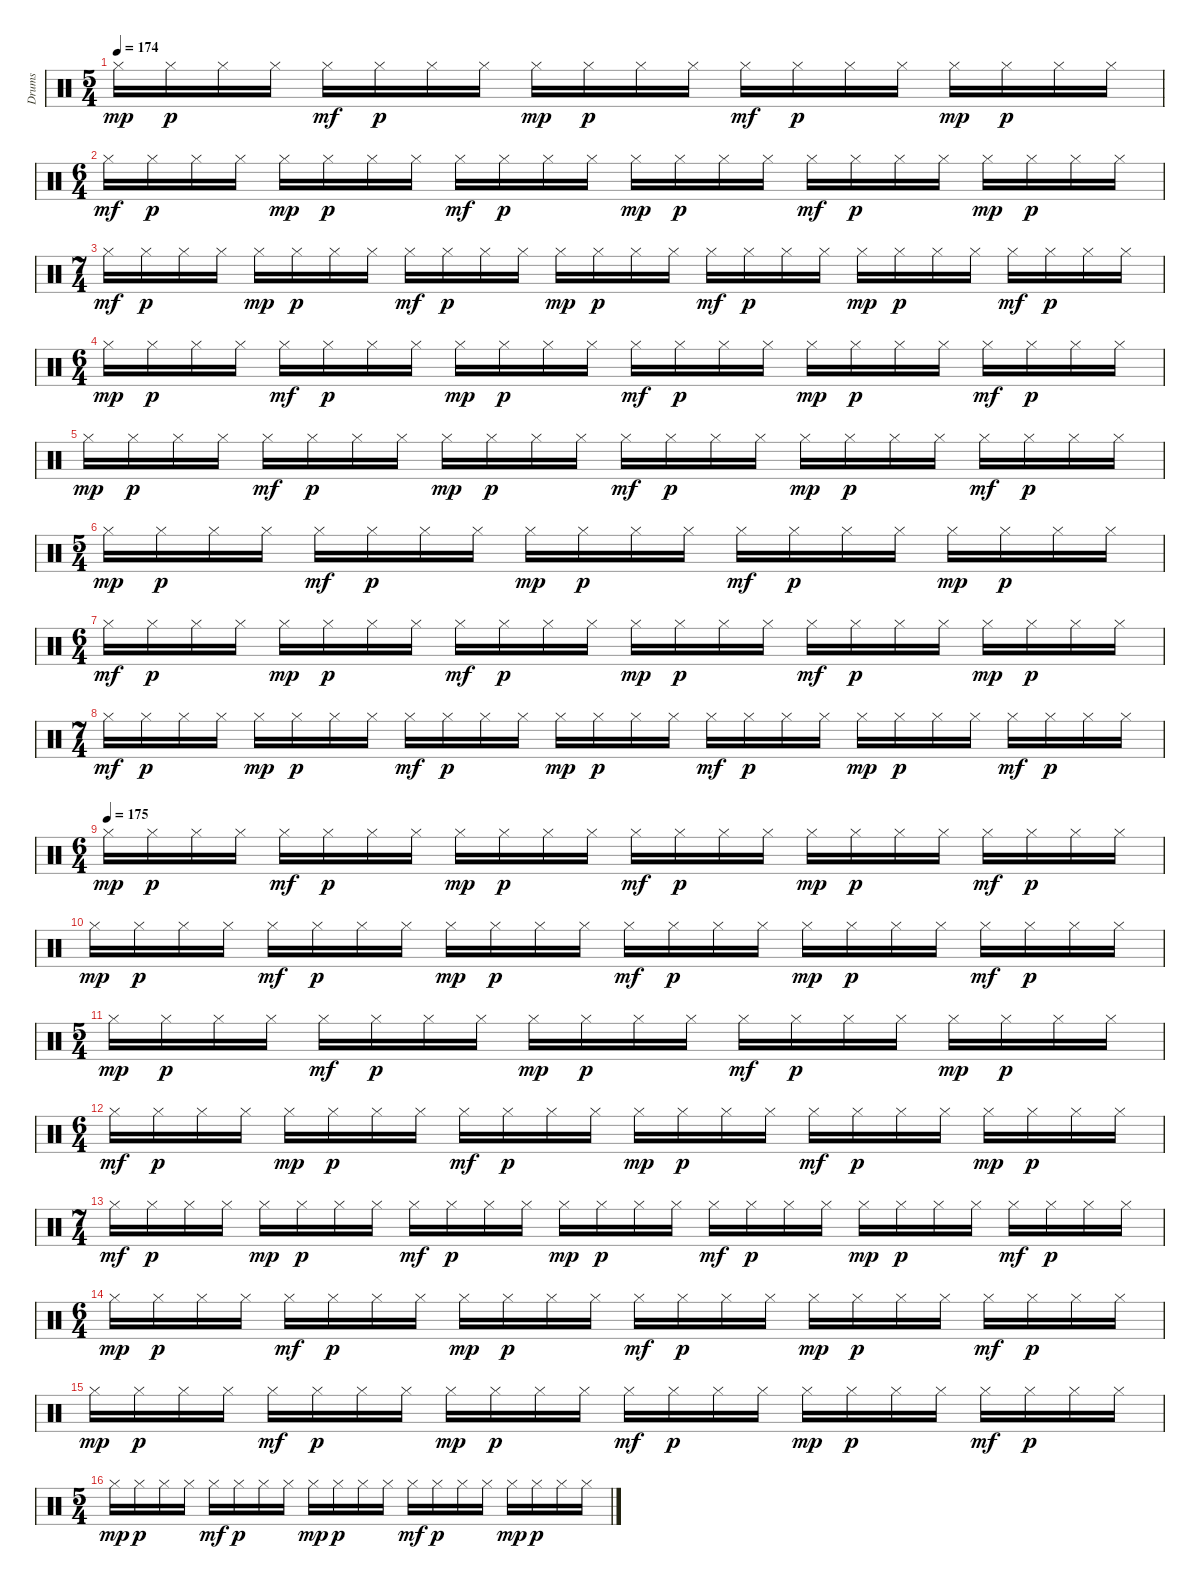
\track ("Drums" "Drums") {instrument percussion}
\staff {score}
\articulation defaults
\ts (5 4)
\tempo 174
\clef neutral
\ks c "Hi-Hat (closed)".16{dy mp} "Hi-Hat (closed)".16{dy p} "Hi-Hat (closed)".16 "Hi-Hat (closed)".16 "Hi-Hat (closed)".16{dy mf} "Hi-Hat (closed)".16{dy p} "Hi-Hat (closed)".16 "Hi-Hat (closed)".16 "Hi-Hat (closed)".16{dy mp} "Hi-Hat (closed)".16{dy p} "Hi-Hat (closed)".16 "Hi-Hat (closed)".16 "Hi-Hat (closed)".16{dy mf} "Hi-Hat (closed)".16{dy p} "Hi-Hat (closed)".16 "Hi-Hat (closed)".16 "Hi-Hat (closed)".16{dy mp} "Hi-Hat (closed)".16{dy p} "Hi-Hat (closed)".16 "Hi-Hat (closed)".16
|
\ts (6 4)
"Hi-Hat (closed)".16{dy mf} "Hi-Hat (closed)".16{dy p} "Hi-Hat (closed)".16 "Hi-Hat (closed)".16 "Hi-Hat (closed)".16{dy mp} "Hi-Hat (closed)".16{dy p} "Hi-Hat (closed)".16 "Hi-Hat (closed)".16 "Hi-Hat (closed)".16{dy mf} "Hi-Hat (closed)".16{dy p} "Hi-Hat (closed)".16 "Hi-Hat (closed)".16 "Hi-Hat (closed)".16{dy mp} "Hi-Hat (closed)".16{dy p} "Hi-Hat (closed)".16 "Hi-Hat (closed)".16 "Hi-Hat (closed)".16{dy mf} "Hi-Hat (closed)".16{dy p} "Hi-Hat (closed)".16 "Hi-Hat (closed)".16 "Hi-Hat (closed)".16{dy mp} "Hi-Hat (closed)".16{dy p} "Hi-Hat (closed)".16 "Hi-Hat (closed)".16 |
\ts (7 4)
"Hi-Hat (closed)".16{dy mf} "Hi-Hat (closed)".16{dy p} "Hi-Hat (closed)".16 "Hi-Hat (closed)".16 "Hi-Hat (closed)".16{dy mp} "Hi-Hat (closed)".16{dy p} "Hi-Hat (closed)".16 "Hi-Hat (closed)".16 "Hi-Hat (closed)".16{dy mf} "Hi-Hat (closed)".16{dy p} "Hi-Hat (closed)".16 "Hi-Hat (closed)".16 "Hi-Hat (closed)".16{dy mp} "Hi-Hat (closed)".16{dy p} "Hi-Hat (closed)".16 "Hi-Hat (closed)".16 "Hi-Hat (closed)".16{dy mf} "Hi-Hat (closed)".16{dy p} "Hi-Hat (closed)".16 "Hi-Hat (closed)".16 "Hi-Hat (closed)".16{dy mp} "Hi-Hat (closed)".16{dy p} "Hi-Hat (closed)".16 "Hi-Hat (closed)".16 "Hi-Hat (closed)".16{dy mf} "Hi-Hat (closed)".16{dy p} "Hi-Hat (closed)".16 "Hi-Hat (closed)".16 |
\ts (6 4)
"Hi-Hat (closed)".16{dy mp} "Hi-Hat (closed)".16{dy p} "Hi-Hat (closed)".16 "Hi-Hat (closed)".16 "Hi-Hat (closed)".16{dy mf} "Hi-Hat (closed)".16{dy p} "Hi-Hat (closed)".16 "Hi-Hat (closed)".16 "Hi-Hat (closed)".16{dy mp} "Hi-Hat (closed)".16{dy p} "Hi-Hat (closed)".16 "Hi-Hat (closed)".16 "Hi-Hat (closed)".16{dy mf} "Hi-Hat (closed)".16{dy p} "Hi-Hat (closed)".16 "Hi-Hat (closed)".16 "Hi-Hat (closed)".16{dy mp} "Hi-Hat (closed)".16{dy p} "Hi-Hat (closed)".16 "Hi-Hat (closed)".16 "Hi-Hat (closed)".16{dy mf} "Hi-Hat (closed)".16{dy p} "Hi-Hat (closed)".16 "Hi-Hat (closed)".16 |
"Hi-Hat (closed)".16{dy mp} "Hi-Hat (closed)".16{dy p} "Hi-Hat (closed)".16 "Hi-Hat (closed)".16 "Hi-Hat (closed)".16{dy mf} "Hi-Hat (closed)".16{dy p} "Hi-Hat (closed)".16 "Hi-Hat (closed)".16 "Hi-Hat (closed)".16{dy mp} "Hi-Hat (closed)".16{dy p} "Hi-Hat (closed)".16 "Hi-Hat (closed)".16 "Hi-Hat (closed)".16{dy mf} "Hi-Hat (closed)".16{dy p} "Hi-Hat (closed)".16 "Hi-Hat (closed)".16 "Hi-Hat (closed)".16{dy mp} "Hi-Hat (closed)".16{dy p} "Hi-Hat (closed)".16 "Hi-Hat (closed)".16 "Hi-Hat (closed)".16{dy mf} "Hi-Hat (closed)".16{dy p} "Hi-Hat (closed)".16 "Hi-Hat (closed)".16 |
\ts (5 4)
"Hi-Hat (closed)".16{dy mp} "Hi-Hat (closed)".16{dy p} "Hi-Hat (closed)".16 "Hi-Hat (closed)".16 "Hi-Hat (closed)".16{dy mf} "Hi-Hat (closed)".16{dy p} "Hi-Hat (closed)".16 "Hi-Hat (closed)".16 "Hi-Hat (closed)".16{dy mp} "Hi-Hat (closed)".16{dy p} "Hi-Hat (closed)".16 "Hi-Hat (closed)".16 "Hi-Hat (closed)".16{dy mf} "Hi-Hat (closed)".16{dy p} "Hi-Hat (closed)".16 "Hi-Hat (closed)".16 "Hi-Hat (closed)".16{dy mp} "Hi-Hat (closed)".16{dy p} "Hi-Hat (closed)".16 "Hi-Hat (closed)".16 |
\ts (6 4)
"Hi-Hat (closed)".16{dy mf} "Hi-Hat (closed)".16{dy p} "Hi-Hat (closed)".16 "Hi-Hat (closed)".16 "Hi-Hat (closed)".16{dy mp} "Hi-Hat (closed)".16{dy p} "Hi-Hat (closed)".16 "Hi-Hat (closed)".16 "Hi-Hat (closed)".16{dy mf} "Hi-Hat (closed)".16{dy p} "Hi-Hat (closed)".16 "Hi-Hat (closed)".16 "Hi-Hat (closed)".16{dy mp} "Hi-Hat (closed)".16{dy p} "Hi-Hat (closed)".16 "Hi-Hat (closed)".16 "Hi-Hat (closed)".16{dy mf} "Hi-Hat (closed)".16{dy p} "Hi-Hat (closed)".16 "Hi-Hat (closed)".16 "Hi-Hat (closed)".16{dy mp} "Hi-Hat (closed)".16{dy p} "Hi-Hat (closed)".16 "Hi-Hat (closed)".16 |
\ts (7 4)
"Hi-Hat (closed)".16{dy mf} "Hi-Hat (closed)".16{dy p} "Hi-Hat (closed)".16 "Hi-Hat (closed)".16 "Hi-Hat (closed)".16{dy mp} "Hi-Hat (closed)".16{dy p} "Hi-Hat (closed)".16 "Hi-Hat (closed)".16 "Hi-Hat (closed)".16{dy mf} "Hi-Hat (closed)".16{dy p} "Hi-Hat (closed)".16 "Hi-Hat (closed)".16 "Hi-Hat (closed)".16{dy mp} "Hi-Hat (closed)".16{dy p} "Hi-Hat (closed)".16 "Hi-Hat (closed)".16 "Hi-Hat (closed)".16{dy mf} "Hi-Hat (closed)".16{dy p} "Hi-Hat (closed)".16 "Hi-Hat (closed)".16 "Hi-Hat (closed)".16{dy mp} "Hi-Hat (closed)".16{dy p} "Hi-Hat (closed)".16 "Hi-Hat (closed)".16 "Hi-Hat (closed)".16{dy mf} "Hi-Hat (closed)".16{dy p} "Hi-Hat (closed)".16 "Hi-Hat (closed)".16 |
\ts (6 4)
\tempo (175)
"Hi-Hat (closed)".16{dy mp} "Hi-Hat (closed)".16{dy p} "Hi-Hat (closed)".16 "Hi-Hat (closed)".16 "Hi-Hat (closed)".16{dy mf} "Hi-Hat (closed)".16{dy p} "Hi-Hat (closed)".16 "Hi-Hat (closed)".16 "Hi-Hat (closed)".16{dy mp} "Hi-Hat (closed)".16{dy p} "Hi-Hat (closed)".16 "Hi-Hat (closed)".16 "Hi-Hat (closed)".16{dy mf} "Hi-Hat (closed)".16{dy p} "Hi-Hat (closed)".16 "Hi-Hat (closed)".16 "Hi-Hat (closed)".16{dy mp} "Hi-Hat (closed)".16{dy p} "Hi-Hat (closed)".16 "Hi-Hat (closed)".16 "Hi-Hat (closed)".16{dy mf} "Hi-Hat (closed)".16{dy p} "Hi-Hat (closed)".16 "Hi-Hat (closed)".16 |
"Hi-Hat (closed)".16{dy mp} "Hi-Hat (closed)".16{dy p} "Hi-Hat (closed)".16 "Hi-Hat (closed)".16 "Hi-Hat (closed)".16{dy mf} "Hi-Hat (closed)".16{dy p} "Hi-Hat (closed)".16 "Hi-Hat (closed)".16 "Hi-Hat (closed)".16{dy mp} "Hi-Hat (closed)".16{dy p} "Hi-Hat (closed)".16 "Hi-Hat (closed)".16 "Hi-Hat (closed)".16{dy mf} "Hi-Hat (closed)".16{dy p} "Hi-Hat (closed)".16 "Hi-Hat (closed)".16 "Hi-Hat (closed)".16{dy mp} "Hi-Hat (closed)".16{dy p} "Hi-Hat (closed)".16 "Hi-Hat (closed)".16 "Hi-Hat (closed)".16{dy mf} "Hi-Hat (closed)".16{dy p} "Hi-Hat (closed)".16 "Hi-Hat (closed)".16 |
\ts (5 4)
"Hi-Hat (closed)".16{dy mp} "Hi-Hat (closed)".16{dy p} "Hi-Hat (closed)".16 "Hi-Hat (closed)".16 "Hi-Hat (closed)".16{dy mf} "Hi-Hat (closed)".16{dy p} "Hi-Hat (closed)".16 "Hi-Hat (closed)".16 "Hi-Hat (closed)".16{dy mp} "Hi-Hat (closed)".16{dy p} "Hi-Hat (closed)".16 "Hi-Hat (closed)".16 "Hi-Hat (closed)".16{dy mf} "Hi-Hat (closed)".16{dy p} "Hi-Hat (closed)".16 "Hi-Hat (closed)".16 "Hi-Hat (closed)".16{dy mp} "Hi-Hat (closed)".16{dy p} "Hi-Hat (closed)".16 "Hi-Hat (closed)".16 |
\ts (6 4)
"Hi-Hat (closed)".16{dy mf} "Hi-Hat (closed)".16{dy p} "Hi-Hat (closed)".16 "Hi-Hat (closed)".16 "Hi-Hat (closed)".16{dy mp} "Hi-Hat (closed)".16{dy p} "Hi-Hat (closed)".16 "Hi-Hat (closed)".16 "Hi-Hat (closed)".16{dy mf} "Hi-Hat (closed)".16{dy p} "Hi-Hat (closed)".16 "Hi-Hat (closed)".16 "Hi-Hat (closed)".16{dy mp} "Hi-Hat (closed)".16{dy p} "Hi-Hat (closed)".16 "Hi-Hat (closed)".16 "Hi-Hat (closed)".16{dy mf} "Hi-Hat (closed)".16{dy p} "Hi-Hat (closed)".16 "Hi-Hat (closed)".16 "Hi-Hat (closed)".16{dy mp} "Hi-Hat (closed)".16{dy p} "Hi-Hat (closed)".16 "Hi-Hat (closed)".16 |
\ts (7 4)
"Hi-Hat (closed)".16{dy mf} "Hi-Hat (closed)".16{dy p} "Hi-Hat (closed)".16 "Hi-Hat (closed)".16 "Hi-Hat (closed)".16{dy mp} "Hi-Hat (closed)".16{dy p} "Hi-Hat (closed)".16 "Hi-Hat (closed)".16 "Hi-Hat (closed)".16{dy mf} "Hi-Hat (closed)".16{dy p} "Hi-Hat (closed)".16 "Hi-Hat (closed)".16 "Hi-Hat (closed)".16{dy mp} "Hi-Hat (closed)".16{dy p} "Hi-Hat (closed)".16 "Hi-Hat (closed)".16 "Hi-Hat (closed)".16{dy mf} "Hi-Hat (closed)".16{dy p} "Hi-Hat (closed)".16 "Hi-Hat (closed)".16 "Hi-Hat (closed)".16{dy mp} "Hi-Hat (closed)".16{dy p} "Hi-Hat (closed)".16 "Hi-Hat (closed)".16 "Hi-Hat (closed)".16{dy mf} "Hi-Hat (closed)".16{dy p} "Hi-Hat (closed)".16 "Hi-Hat (closed)".16 |
\ts (6 4)
"Hi-Hat (closed)".16{dy mp} "Hi-Hat (closed)".16{dy p} "Hi-Hat (closed)".16 "Hi-Hat (closed)".16 "Hi-Hat (closed)".16{dy mf} "Hi-Hat (closed)".16{dy p} "Hi-Hat (closed)".16 "Hi-Hat (closed)".16 "Hi-Hat (closed)".16{dy mp} "Hi-Hat (closed)".16{dy p} "Hi-Hat (closed)".16 "Hi-Hat (closed)".16 "Hi-Hat (closed)".16{dy mf} "Hi-Hat (closed)".16{dy p} "Hi-Hat (closed)".16 "Hi-Hat (closed)".16 "Hi-Hat (closed)".16{dy mp} "Hi-Hat (closed)".16{dy p} "Hi-Hat (closed)".16 "Hi-Hat (closed)".16 "Hi-Hat (closed)".16{dy mf} "Hi-Hat (closed)".16{dy p} "Hi-Hat (closed)".16 "Hi-Hat (closed)".16 |
"Hi-Hat (closed)".16{dy mp} "Hi-Hat (closed)".16{dy p} "Hi-Hat (closed)".16 "Hi-Hat (closed)".16 "Hi-Hat (closed)".16{dy mf} "Hi-Hat (closed)".16{dy p} "Hi-Hat (closed)".16 "Hi-Hat (closed)".16 "Hi-Hat (closed)".16{dy mp} "Hi-Hat (closed)".16{dy p} "Hi-Hat (closed)".16 "Hi-Hat (closed)".16 "Hi-Hat (closed)".16{dy mf} "Hi-Hat (closed)".16{dy p} "Hi-Hat (closed)".16 "Hi-Hat (closed)".16 "Hi-Hat (closed)".16{dy mp} "Hi-Hat (closed)".16{dy p} "Hi-Hat (closed)".16 "Hi-Hat (closed)".16 "Hi-Hat (closed)".16{dy mf} "Hi-Hat (closed)".16{dy p} "Hi-Hat (closed)".16 "Hi-Hat (closed)".16 |
\ts (5 4)
"Hi-Hat (closed)".16{dy mp} "Hi-Hat (closed)".16{dy p} "Hi-Hat (closed)".16 "Hi-Hat (closed)".16 "Hi-Hat (closed)".16{dy mf} "Hi-Hat (closed)".16{dy p} "Hi-Hat (closed)".16 "Hi-Hat (closed)".16 "Hi-Hat (closed)".16{dy mp} "Hi-Hat (closed)".16{dy p} "Hi-Hat (closed)".16 "Hi-Hat (closed)".16 "Hi-Hat (closed)".16{dy mf} "Hi-Hat (closed)".16{dy p} "Hi-Hat (closed)".16 "Hi-Hat (closed)".16 "Hi-Hat (closed)".16{dy mp} "Hi-Hat (closed)".16{dy p} "Hi-Hat (closed)".16 "Hi-Hat (closed)".16
